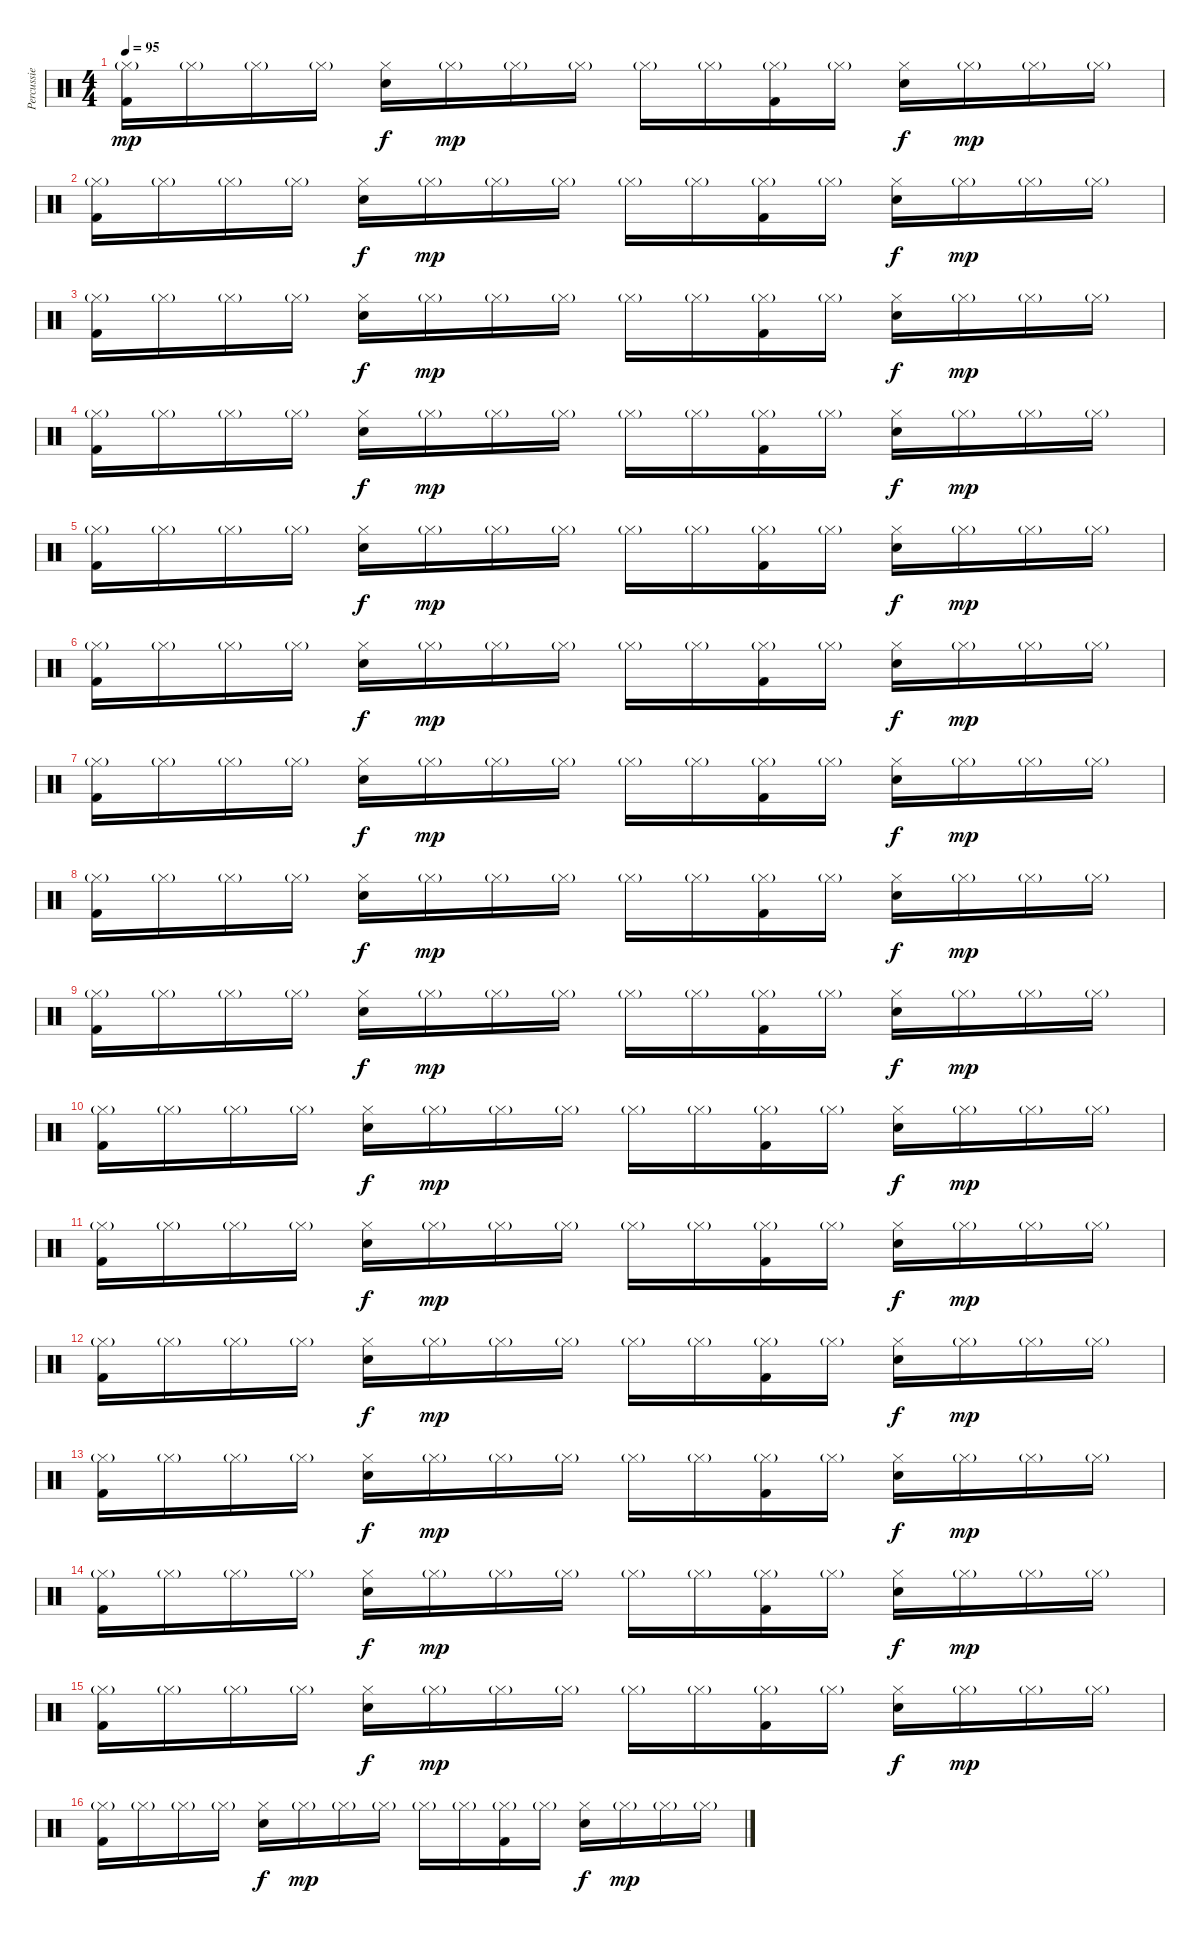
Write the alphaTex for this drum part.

\track ("Percussie" "Percussie") {instrument percussion}
\staff {score}
\articulation defaults
\ts (4 4)
\tempo 95
\clef neutral
\ks c
("Hi-Hat (closed)"{g} "Kick (hit) 2").16{dy mp} "Hi-Hat (closed)"{g}.16 "Hi-Hat (closed)"{g}.16 "Hi-Hat (closed)"{g}.16 ("Hi-Hat (closed)" "Snare (hit) 2").16{dy f} "Hi-Hat (closed)"{g}.16{dy mp} "Hi-Hat (closed)"{g}.16 "Hi-Hat (closed)"{g}.16 "Hi-Hat (closed)"{g}.16 "Hi-Hat (closed)"{g}.16 ("Hi-Hat (closed)"{g} "Kick (hit) 2").16 "Hi-Hat (closed)"{g}.16 ("Hi-Hat (closed)" "Snare (hit) 2").16{dy f} "Hi-Hat (closed)"{g}.16{dy mp} "Hi-Hat (closed)"{g}.16 "Hi-Hat (closed)"{g}.16 |
("Hi-Hat (closed)"{g} "Kick (hit) 2").16 "Hi-Hat (closed)"{g}.16 "Hi-Hat (closed)"{g}.16 "Hi-Hat (closed)"{g}.16 ("Hi-Hat (closed)" "Snare (hit) 2").16{dy f} "Hi-Hat (closed)"{g}.16{dy mp} "Hi-Hat (closed)"{g}.16 "Hi-Hat (closed)"{g}.16 "Hi-Hat (closed)"{g}.16 "Hi-Hat (closed)"{g}.16 ("Hi-Hat (closed)"{g} "Kick (hit) 2").16 "Hi-Hat (closed)"{g}.16 ("Hi-Hat (closed)" "Snare (hit) 2").16{dy f} "Hi-Hat (closed)"{g}.16{dy mp} "Hi-Hat (closed)"{g}.16 "Hi-Hat (closed)"{g}.16 |
("Hi-Hat (closed)"{g} "Kick (hit) 2").16 "Hi-Hat (closed)"{g}.16 "Hi-Hat (closed)"{g}.16 "Hi-Hat (closed)"{g}.16 ("Hi-Hat (closed)" "Snare (hit) 2").16{dy f} "Hi-Hat (closed)"{g}.16{dy mp} "Hi-Hat (closed)"{g}.16 "Hi-Hat (closed)"{g}.16 "Hi-Hat (closed)"{g}.16 "Hi-Hat (closed)"{g}.16 ("Hi-Hat (closed)"{g} "Kick (hit) 2").16 "Hi-Hat (closed)"{g}.16 ("Hi-Hat (closed)" "Snare (hit) 2").16{dy f} "Hi-Hat (closed)"{g}.16{dy mp} "Hi-Hat (closed)"{g}.16 "Hi-Hat (closed)"{g}.16 |
("Hi-Hat (closed)"{g} "Kick (hit) 2").16 "Hi-Hat (closed)"{g}.16 "Hi-Hat (closed)"{g}.16 "Hi-Hat (closed)"{g}.16 ("Hi-Hat (closed)" "Snare (hit) 2").16{dy f} "Hi-Hat (closed)"{g}.16{dy mp} "Hi-Hat (closed)"{g}.16 "Hi-Hat (closed)"{g}.16 "Hi-Hat (closed)"{g}.16 "Hi-Hat (closed)"{g}.16 ("Hi-Hat (closed)"{g} "Kick (hit) 2").16 "Hi-Hat (closed)"{g}.16 ("Hi-Hat (closed)" "Snare (hit) 2").16{dy f} "Hi-Hat (closed)"{g}.16{dy mp} "Hi-Hat (closed)"{g}.16 "Hi-Hat (closed)"{g}.16 |
("Hi-Hat (closed)"{g} "Kick (hit) 2").16 "Hi-Hat (closed)"{g}.16 "Hi-Hat (closed)"{g}.16 "Hi-Hat (closed)"{g}.16 ("Hi-Hat (closed)" "Snare (hit) 2").16{dy f} "Hi-Hat (closed)"{g}.16{dy mp} "Hi-Hat (closed)"{g}.16 "Hi-Hat (closed)"{g}.16 "Hi-Hat (closed)"{g}.16 "Hi-Hat (closed)"{g}.16 ("Hi-Hat (closed)"{g} "Kick (hit) 2").16 "Hi-Hat (closed)"{g}.16 ("Hi-Hat (closed)" "Snare (hit) 2").16{dy f} "Hi-Hat (closed)"{g}.16{dy mp} "Hi-Hat (closed)"{g}.16 "Hi-Hat (closed)"{g}.16 |
("Hi-Hat (closed)"{g} "Kick (hit) 2").16 "Hi-Hat (closed)"{g}.16 "Hi-Hat (closed)"{g}.16 "Hi-Hat (closed)"{g}.16 ("Hi-Hat (closed)" "Snare (hit) 2").16{dy f} "Hi-Hat (closed)"{g}.16{dy mp} "Hi-Hat (closed)"{g}.16 "Hi-Hat (closed)"{g}.16 "Hi-Hat (closed)"{g}.16 "Hi-Hat (closed)"{g}.16 ("Hi-Hat (closed)"{g} "Kick (hit) 2").16 "Hi-Hat (closed)"{g}.16 ("Hi-Hat (closed)" "Snare (hit) 2").16{dy f} "Hi-Hat (closed)"{g}.16{dy mp} "Hi-Hat (closed)"{g}.16 "Hi-Hat (closed)"{g}.16 |
("Hi-Hat (closed)"{g} "Kick (hit) 2").16 "Hi-Hat (closed)"{g}.16 "Hi-Hat (closed)"{g}.16 "Hi-Hat (closed)"{g}.16 ("Hi-Hat (closed)" "Snare (hit) 2").16{dy f} "Hi-Hat (closed)"{g}.16{dy mp} "Hi-Hat (closed)"{g}.16 "Hi-Hat (closed)"{g}.16 "Hi-Hat (closed)"{g}.16 "Hi-Hat (closed)"{g}.16 ("Hi-Hat (closed)"{g} "Kick (hit) 2").16 "Hi-Hat (closed)"{g}.16 ("Hi-Hat (closed)" "Snare (hit) 2").16{dy f} "Hi-Hat (closed)"{g}.16{dy mp} "Hi-Hat (closed)"{g}.16 "Hi-Hat (closed)"{g}.16 |
("Hi-Hat (closed)"{g} "Kick (hit) 2").16 "Hi-Hat (closed)"{g}.16 "Hi-Hat (closed)"{g}.16 "Hi-Hat (closed)"{g}.16 ("Hi-Hat (closed)" "Snare (hit) 2").16{dy f} "Hi-Hat (closed)"{g}.16{dy mp} "Hi-Hat (closed)"{g}.16 "Hi-Hat (closed)"{g}.16 "Hi-Hat (closed)"{g}.16 "Hi-Hat (closed)"{g}.16 ("Hi-Hat (closed)"{g} "Kick (hit) 2").16 "Hi-Hat (closed)"{g}.16 ("Hi-Hat (closed)" "Snare (hit) 2").16{dy f} "Hi-Hat (closed)"{g}.16{dy mp} "Hi-Hat (closed)"{g}.16 "Hi-Hat (closed)"{g}.16 |
("Hi-Hat (closed)"{g} "Kick (hit) 2").16 "Hi-Hat (closed)"{g}.16 "Hi-Hat (closed)"{g}.16 "Hi-Hat (closed)"{g}.16 ("Hi-Hat (closed)" "Snare (hit) 2").16{dy f} "Hi-Hat (closed)"{g}.16{dy mp} "Hi-Hat (closed)"{g}.16 "Hi-Hat (closed)"{g}.16 "Hi-Hat (closed)"{g}.16 "Hi-Hat (closed)"{g}.16 ("Hi-Hat (closed)"{g} "Kick (hit) 2").16 "Hi-Hat (closed)"{g}.16 ("Hi-Hat (closed)" "Snare (hit) 2").16{dy f} "Hi-Hat (closed)"{g}.16{dy mp} "Hi-Hat (closed)"{g}.16 "Hi-Hat (closed)"{g}.16 |
("Hi-Hat (closed)"{g} "Kick (hit) 2").16 "Hi-Hat (closed)"{g}.16 "Hi-Hat (closed)"{g}.16 "Hi-Hat (closed)"{g}.16 ("Hi-Hat (closed)" "Snare (hit) 2").16{dy f} "Hi-Hat (closed)"{g}.16{dy mp} "Hi-Hat (closed)"{g}.16 "Hi-Hat (closed)"{g}.16 "Hi-Hat (closed)"{g}.16 "Hi-Hat (closed)"{g}.16 ("Hi-Hat (closed)"{g} "Kick (hit) 2").16 "Hi-Hat (closed)"{g}.16 ("Hi-Hat (closed)" "Snare (hit) 2").16{dy f} "Hi-Hat (closed)"{g}.16{dy mp} "Hi-Hat (closed)"{g}.16 "Hi-Hat (closed)"{g}.16 |
("Hi-Hat (closed)"{g} "Kick (hit) 2").16 "Hi-Hat (closed)"{g}.16 "Hi-Hat (closed)"{g}.16 "Hi-Hat (closed)"{g}.16 ("Hi-Hat (closed)" "Snare (hit) 2").16{dy f} "Hi-Hat (closed)"{g}.16{dy mp} "Hi-Hat (closed)"{g}.16 "Hi-Hat (closed)"{g}.16 "Hi-Hat (closed)"{g}.16 "Hi-Hat (closed)"{g}.16 ("Hi-Hat (closed)"{g} "Kick (hit) 2").16 "Hi-Hat (closed)"{g}.16 ("Hi-Hat (closed)" "Snare (hit) 2").16{dy f} "Hi-Hat (closed)"{g}.16{dy mp} "Hi-Hat (closed)"{g}.16 "Hi-Hat (closed)"{g}.16 |
("Hi-Hat (closed)"{g} "Kick (hit) 2").16 "Hi-Hat (closed)"{g}.16 "Hi-Hat (closed)"{g}.16 "Hi-Hat (closed)"{g}.16 ("Hi-Hat (closed)" "Snare (hit) 2").16{dy f} "Hi-Hat (closed)"{g}.16{dy mp} "Hi-Hat (closed)"{g}.16 "Hi-Hat (closed)"{g}.16 "Hi-Hat (closed)"{g}.16 "Hi-Hat (closed)"{g}.16 ("Hi-Hat (closed)"{g} "Kick (hit) 2").16 "Hi-Hat (closed)"{g}.16 ("Hi-Hat (closed)" "Snare (hit) 2").16{dy f} "Hi-Hat (closed)"{g}.16{dy mp} "Hi-Hat (closed)"{g}.16 "Hi-Hat (closed)"{g}.16 |
("Hi-Hat (closed)"{g} "Kick (hit) 2").16 "Hi-Hat (closed)"{g}.16 "Hi-Hat (closed)"{g}.16 "Hi-Hat (closed)"{g}.16 ("Hi-Hat (closed)" "Snare (hit) 2").16{dy f} "Hi-Hat (closed)"{g}.16{dy mp} "Hi-Hat (closed)"{g}.16 "Hi-Hat (closed)"{g}.16 "Hi-Hat (closed)"{g}.16 "Hi-Hat (closed)"{g}.16 ("Hi-Hat (closed)"{g} "Kick (hit) 2").16 "Hi-Hat (closed)"{g}.16 ("Hi-Hat (closed)" "Snare (hit) 2").16{dy f} "Hi-Hat (closed)"{g}.16{dy mp} "Hi-Hat (closed)"{g}.16 "Hi-Hat (closed)"{g}.16 |
("Hi-Hat (closed)"{g} "Kick (hit) 2").16 "Hi-Hat (closed)"{g}.16 "Hi-Hat (closed)"{g}.16 "Hi-Hat (closed)"{g}.16 ("Hi-Hat (closed)" "Snare (hit) 2").16{dy f} "Hi-Hat (closed)"{g}.16{dy mp} "Hi-Hat (closed)"{g}.16 "Hi-Hat (closed)"{g}.16 "Hi-Hat (closed)"{g}.16 "Hi-Hat (closed)"{g}.16 ("Hi-Hat (closed)"{g} "Kick (hit) 2").16 "Hi-Hat (closed)"{g}.16 ("Hi-Hat (closed)" "Snare (hit) 2").16{dy f} "Hi-Hat (closed)"{g}.16{dy mp} "Hi-Hat (closed)"{g}.16 "Hi-Hat (closed)"{g}.16 |
("Hi-Hat (closed)"{g} "Kick (hit) 2").16 "Hi-Hat (closed)"{g}.16 "Hi-Hat (closed)"{g}.16 "Hi-Hat (closed)"{g}.16 ("Hi-Hat (closed)" "Snare (hit) 2").16{dy f} "Hi-Hat (closed)"{g}.16{dy mp} "Hi-Hat (closed)"{g}.16 "Hi-Hat (closed)"{g}.16 "Hi-Hat (closed)"{g}.16 "Hi-Hat (closed)"{g}.16 ("Hi-Hat (closed)"{g} "Kick (hit) 2").16 "Hi-Hat (closed)"{g}.16 ("Hi-Hat (closed)" "Snare (hit) 2").16{dy f} "Hi-Hat (closed)"{g}.16{dy mp} "Hi-Hat (closed)"{g}.16 "Hi-Hat (closed)"{g}.16 |
("Hi-Hat (closed)"{g} "Kick (hit) 2").16 "Hi-Hat (closed)"{g}.16 "Hi-Hat (closed)"{g}.16 "Hi-Hat (closed)"{g}.16 ("Hi-Hat (closed)" "Snare (hit) 2").16{dy f} "Hi-Hat (closed)"{g}.16{dy mp} "Hi-Hat (closed)"{g}.16 "Hi-Hat (closed)"{g}.16 "Hi-Hat (closed)"{g}.16 "Hi-Hat (closed)"{g}.16 ("Hi-Hat (closed)"{g} "Kick (hit) 2").16 "Hi-Hat (closed)"{g}.16 ("Hi-Hat (closed)" "Snare (hit) 2").16{dy f} "Hi-Hat (closed)"{g}.16{dy mp} "Hi-Hat (closed)"{g}.16 "Hi-Hat (closed)"{g}.16
